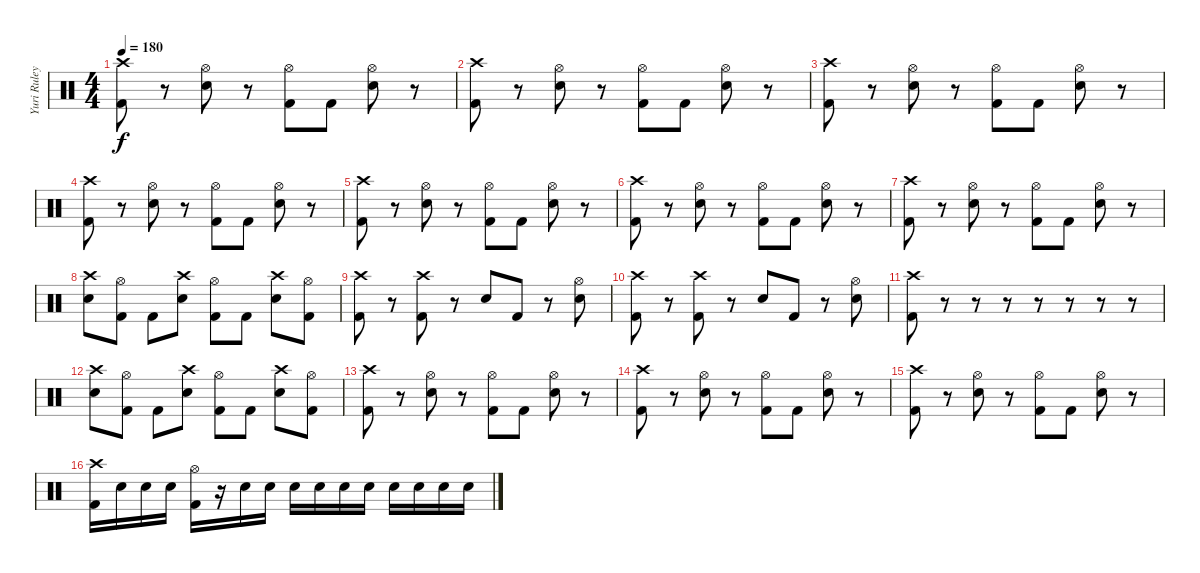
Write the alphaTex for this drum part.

\track ("Yuri Ruley [Drums]" "Yuri Ruley") {instrument percussion}
\staff {score}
\articulation defaults
\ts (4 4)
\tempo 180
\clef neutral
\ks c
("Crash high (hit)" "Kick (hit) 2").8{dy f} r.8 ("Hi-Hat (open)" "Snare (hit) 2").8 r.8 ("Hi-Hat (open)" "Kick (hit) 2").8 "Kick (hit) 2".8 ("Hi-Hat (open)" "Snare (hit) 2").8 r.8 |
("Crash high (hit)" "Kick (hit) 2").8 r.8 ("Hi-Hat (open)" "Snare (hit) 2").8 r.8 ("Hi-Hat (open)" "Kick (hit) 2").8 "Kick (hit) 2".8 ("Hi-Hat (open)" "Snare (hit) 2").8 r.8 |
("Crash high (hit)" "Kick (hit) 2").8 r.8 ("Hi-Hat (open)" "Snare (hit) 2").8 r.8 ("Hi-Hat (open)" "Kick (hit) 2").8 "Kick (hit) 2".8 ("Hi-Hat (open)" "Snare (hit) 2").8 r.8 |
("Crash high (hit)" "Kick (hit) 2").8 r.8 ("Hi-Hat (open)" "Snare (hit) 2").8 r.8 ("Hi-Hat (open)" "Kick (hit) 2").8 "Kick (hit) 2".8 ("Hi-Hat (open)" "Snare (hit) 2").8 r.8 |
("Crash high (hit)" "Kick (hit) 2").8 r.8 ("Hi-Hat (open)" "Snare (hit) 2").8 r.8 ("Hi-Hat (open)" "Kick (hit) 2").8 "Kick (hit) 2".8 ("Hi-Hat (open)" "Snare (hit) 2").8 r.8 |
("Crash high (hit)" "Kick (hit) 2").8 r.8 ("Hi-Hat (open)" "Snare (hit) 2").8 r.8 ("Hi-Hat (open)" "Kick (hit) 2").8 "Kick (hit) 2".8 ("Hi-Hat (open)" "Snare (hit) 2").8 r.8 |
("Crash high (hit)" "Kick (hit) 2").8 r.8 ("Hi-Hat (open)" "Snare (hit) 2").8 r.8 ("Hi-Hat (open)" "Kick (hit) 2").8 "Kick (hit) 2".8 ("Hi-Hat (open)" "Snare (hit) 2").8 r.8 |
("Crash high (hit)" "Snare (hit) 2").8 ("Hi-Hat (open)" "Kick (hit) 2").8 "Kick (hit) 2".8 ("Crash high (hit)" "Snare (hit) 2").8 ("Hi-Hat (open)" "Kick (hit) 2").8 "Kick (hit) 2".8 ("Crash high (hit)" "Snare (hit) 2").8 ("Hi-Hat (open)" "Kick (hit) 2").8 |
("Crash high (hit)" "Kick (hit) 2").8 r.8 ("Crash high (hit)" "Kick (hit) 2").8 r.8 "Snare (hit) 2".8 "Kick (hit) 2".8 r.8 ("Hi-Hat (open)" "Snare (hit) 2").8 |
("Crash high (hit)" "Kick (hit) 2").8 r.8 ("Crash high (hit)" "Kick (hit) 2").8 r.8 "Snare (hit) 2".8 "Kick (hit) 2".8 r.8 ("Hi-Hat (open)" "Snare (hit) 2").8 |
("Crash high (hit)" "Kick (hit) 2").8 r.8 r.8 r.8 r.8 r.8 r.8 r.8 |
("Crash high (hit)" "Snare (hit) 2").8 ("Hi-Hat (open)" "Kick (hit) 2").8 "Kick (hit) 2".8 ("Crash high (hit)" "Snare (hit) 2").8 ("Hi-Hat (open)" "Kick (hit) 2").8 "Kick (hit) 2".8 ("Crash high (hit)" "Snare (hit) 2").8 ("Hi-Hat (open)" "Kick (hit) 2").8 |
("Crash high (hit)" "Kick (hit) 2").8 r.8 ("Hi-Hat (open)" "Snare (hit) 2").8 r.8 ("Hi-Hat (open)" "Kick (hit) 2").8 "Kick (hit) 2".8 ("Hi-Hat (open)" "Snare (hit) 2").8 r.8 |
("Crash high (hit)" "Kick (hit) 2").8 r.8 ("Hi-Hat (open)" "Snare (hit) 2").8 r.8 ("Hi-Hat (open)" "Kick (hit) 2").8 "Kick (hit) 2".8 ("Hi-Hat (open)" "Snare (hit) 2").8 r.8 |
("Crash high (hit)" "Kick (hit) 2").8 r.8 ("Hi-Hat (open)" "Snare (hit) 2").8 r.8 ("Hi-Hat (open)" "Kick (hit) 2").8 "Kick (hit) 2".8 ("Hi-Hat (open)" "Snare (hit) 2").8 r.8 |
("Crash high (hit)" "Kick (hit) 2").16 "Snare (hit) 2".16 "Snare (hit) 2".16 "Snare (hit) 2".16 ("Hi-Hat (open)" "Kick (hit) 2").16 r.16 "Snare (hit) 2".16 "Snare (hit) 2".16 "Snare (hit) 2".16 "Snare (hit) 2".16 "Snare (hit) 2".16 "Snare (hit) 2".16 "Snare (hit) 2".16 "Snare (hit) 2".16 "Snare (hit) 2".16 "Snare (hit) 2".16
